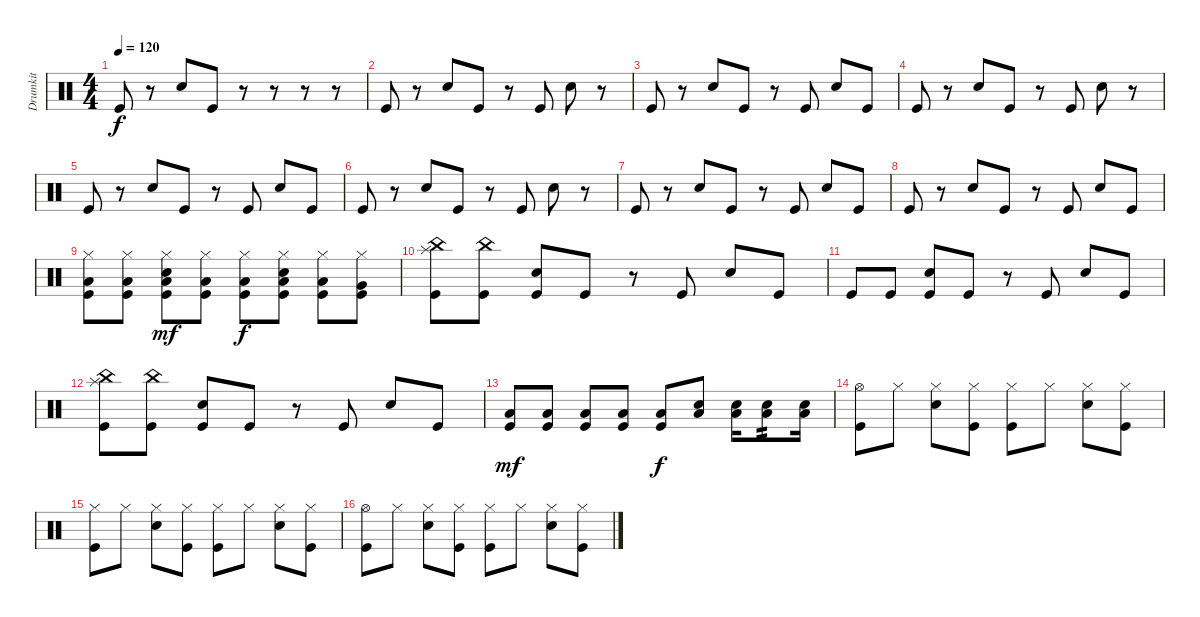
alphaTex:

\track ("Drumkit" "Drumkit") {instrument percussion}
\staff {score}
\articulation defaults
\ts (4 4)
\tempo 120
\clef neutral
\ks c "Kick (hit)".8{dy f}
r.8 "Snare (hit) 2".8 "Kick (hit)".8 r.8 r.8 r.8 r.8 |
"Kick (hit)".8 r.8 "Snare (hit) 2".8 "Kick (hit)".8 r.8 "Kick (hit)".8 "Snare (hit) 2".8 r.8 |
"Kick (hit)".8 r.8 "Snare (hit) 2".8 "Kick (hit)".8 r.8 "Kick (hit)".8 "Snare (hit) 2".8 "Kick (hit)".8 |
"Kick (hit)".8 r.8 "Snare (hit) 2".8 "Kick (hit)".8 r.8 "Kick (hit)".8 "Snare (hit) 2".8 r.8 |
"Kick (hit)".8 r.8 "Snare (hit) 2".8 "Kick (hit)".8 r.8 "Kick (hit)".8 "Snare (hit) 2".8 "Kick (hit)".8 |
"Kick (hit)".8 r.8 "Snare (hit) 2".8 "Kick (hit)".8 r.8 "Kick (hit)".8 "Snare (hit) 2".8 r.8 |
"Kick (hit)".8 r.8 "Snare (hit) 2".8 "Kick (hit)".8 r.8 "Kick (hit)".8 "Snare (hit) 2".8 "Kick (hit)".8 |
"Kick (hit)".8 r.8 "Snare (hit) 2".8 "Kick (hit)".8 r.8 "Kick (hit)".8 "Snare (hit) 2".8 "Kick (hit)".8 |
("Low Tom (hit)" "Hi-Hat (closed)" "Kick (hit)").8 ("Low Tom (hit)" "Hi-Hat (closed)" "Kick (hit)").8 ("Low Tom (hit)" "Hi-Hat (closed)" "Snare (hit) 2" "Kick (hit)").8{dy mf} ("Low Floor Tom (hit)" "Hi-Hat (closed)" "Kick (hit)").8 ("Low Tom (hit)" "Hi-Hat (closed)" "Kick (hit)").8{dy f} ("Low Tom (hit)" "Hi-Hat (closed)" "Snare (hit) 2" "Kick (hit)").8 ("Low Tom (hit)" "Hi-Hat (closed)" "Kick (hit)").8 ("Very Low Tom (hit)" "Hi-Hat (closed)" "Kick (hit)").8 |
("Kick (hit)" "China (hit)" "Splash (hit)").8 ("Kick (hit)" "China (hit)").8 ("Kick (hit)" "Snare (hit) 2").8 "Kick (hit)".8 r.8 "Kick (hit)".8 "Snare (hit) 2".8 "Kick (hit)".8 |
"Kick (hit)".8 "Kick (hit)".8 ("Kick (hit)" "Snare (hit) 2").8 "Kick (hit)".8 r.8 "Kick (hit)".8 "Snare (hit) 2".8 "Kick (hit)".8 |
("Kick (hit)" "China (hit)" "Splash (hit)").8 ("Kick (hit)" "China (hit)").8 ("Kick (hit)" "Snare (hit) 2").8 "Kick (hit)".8 r.8 "Kick (hit)".8 "Snare (hit) 2".8 "Kick (hit)".8 |
("Low Floor Tom (hit)" "Kick (hit)").8{dy mf} ("Low Floor Tom (hit)" "Kick (hit)").8 ("Low Floor Tom (hit)" "Kick (hit)").8 ("Low Floor Tom (hit)" "Kick (hit)").8 ("Low Floor Tom (hit)" "Kick (hit)").8{dy f} ("Low Floor Tom (hit)" "Snare (hit) 2").8 ("Low Floor Tom (hit)" "Snare (hit) 2").16 ("Low Floor Tom (hit)" "Snare (hit) 2").8{tp 2} ("Snare (hit) 2" "Low Floor Tom (hit)").16 |
("Kick (hit)" "Hi-Hat (open)").8 "Hi-Hat (closed)".8 ("Snare (hit) 2" "Hi-Hat (closed)").8 ("Kick (hit)" "Hi-Hat (closed)").8 ("Kick (hit)" "Hi-Hat (closed)").8 "Hi-Hat (closed)".8 ("Snare (hit) 2" "Hi-Hat (closed)").8 ("Kick (hit)" "Hi-Hat (closed)").8 |
("Kick (hit)" "Hi-Hat (closed)").8 "Hi-Hat (closed)".8 ("Snare (hit) 2" "Hi-Hat (closed)").8 ("Kick (hit)" "Hi-Hat (closed)").8 ("Kick (hit)" "Hi-Hat (closed)").8 "Hi-Hat (closed)".8 ("Snare (hit) 2" "Hi-Hat (closed)").8 ("Kick (hit)" "Hi-Hat (closed)").8 |
("Kick (hit)" "Hi-Hat (open)").8 "Hi-Hat (closed)".8 ("Snare (hit) 2" "Hi-Hat (closed)").8 ("Kick (hit)" "Hi-Hat (closed)").8 ("Kick (hit)" "Hi-Hat (closed)").8 "Hi-Hat (closed)".8 ("Snare (hit) 2" "Hi-Hat (closed)").8 ("Kick (hit)" "Hi-Hat (closed)").8
